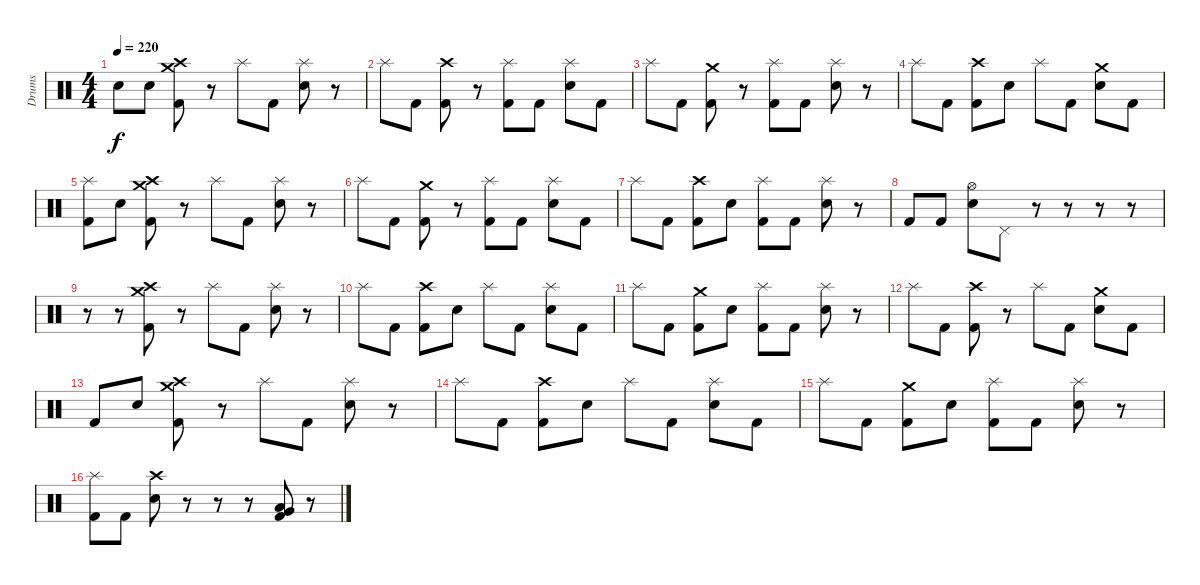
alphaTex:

\track ("Drums" "Drums") {instrument percussion}
\staff {score}
\articulation defaults
\ts (4 4)
\tempo 220
\clef neutral
\ks c "Electric Snare (hit)".8{dy f} "Electric Snare (hit)".8
("Crash high (hit)" "Crash medium (hit)" "Kick (hit) 2").8 r.8 "Splash (hit)".8 "Kick (hit) 2".8 ("Splash (hit)" "Electric Snare (hit)").8 r.8 |
"Splash (hit)".8 "Kick (hit) 2".8 ("Crash high (hit)" "Kick (hit) 2").8 r.8 ("Splash (hit)" "Kick (hit) 2").8 "Kick (hit) 2".8 ("Splash (hit)" "Electric Snare (hit)").8 "Kick (hit) 2".8 |
"Splash (hit)".8 "Kick (hit) 2".8 ("Crash medium (hit)" "Kick (hit) 2").8 r.8 ("Splash (hit)" "Kick (hit) 2").8 "Kick (hit) 2".8 ("Splash (hit)" "Electric Snare (hit)").8 r.8 |
"Splash (hit)".8 "Kick (hit) 2".8 ("Crash high (hit)" "Kick (hit) 2").8 "Electric Snare (hit)".8 "Splash (hit)".8 "Kick (hit) 2".8 ("Crash medium (hit)" "Electric Snare (hit)").8 "Kick (hit) 2".8 |
("Splash (hit)" "Kick (hit) 2").8 "Electric Snare (hit)".8 ("Crash high (hit)" "Crash medium (hit)" "Kick (hit) 2").8 r.8 "Splash (hit)".8 "Kick (hit) 2".8 ("Splash (hit)" "Electric Snare (hit)").8 r.8 |
"Splash (hit)".8 "Kick (hit) 2".8 ("Crash medium (hit)" "Kick (hit) 2").8 r.8 ("Splash (hit)" "Kick (hit) 2").8 "Kick (hit) 2".8 ("Splash (hit)" "Electric Snare (hit)").8 "Kick (hit) 2".8 |
"Splash (hit)".8 "Kick (hit) 2".8 ("Crash high (hit)" "Kick (hit) 2").8 "Electric Snare (hit)".8 ("Splash (hit)" "Kick (hit) 2").8 "Kick (hit) 2".8 ("Splash (hit)" "Electric Snare (hit)").8 r.8 |
"Kick (hit) 2".8 "Kick (hit) 2".8 ("Hi-Hat (open)" "Electric Snare (hit)").8 "Pedal Hi-Hat (hit)".8 r.8 r.8 r.8 r.8 |
r.8 r.8 ("Crash high (hit)" "Crash medium (hit)" "Kick (hit) 2").8 r.8 "Splash (hit)".8 "Kick (hit) 2".8 ("Splash (hit)" "Electric Snare (hit)").8 r.8 |
"Splash (hit)".8 "Kick (hit) 2".8 ("Crash high (hit)" "Kick (hit) 2").8 "Electric Snare (hit)".8 "Splash (hit)".8 "Kick (hit) 2".8 ("Splash (hit)" "Electric Snare (hit)").8 "Kick (hit) 2".8 |
"Splash (hit)".8 "Kick (hit) 2".8 ("Crash medium (hit)" "Kick (hit) 2").8 "Electric Snare (hit)".8 ("Splash (hit)" "Kick (hit) 2").8 "Kick (hit) 2".8 ("Splash (hit)" "Electric Snare (hit)").8 r.8 |
"Splash (hit)".8 "Kick (hit) 2".8 ("Crash high (hit)" "Kick (hit) 2").8 r.8 "Splash (hit)".8 "Kick (hit) 2".8 ("Crash medium (hit)" "Electric Snare (hit)").8 "Kick (hit) 2".8 |
"Kick (hit) 2".8 "Electric Snare (hit)".8 ("Crash high (hit)" "Crash medium (hit)" "Kick (hit) 2").8 r.8 "Splash (hit)".8 "Kick (hit) 2".8 ("Splash (hit)" "Electric Snare (hit)").8 r.8 |
"Splash (hit)".8 "Kick (hit) 2".8 ("Crash high (hit)" "Kick (hit) 2").8 "Electric Snare (hit)".8 "Splash (hit)".8 "Kick (hit) 2".8 ("Splash (hit)" "Electric Snare (hit)").8 "Kick (hit) 2".8 |
"Splash (hit)".8 "Kick (hit) 2".8 ("Crash medium (hit)" "Kick (hit) 2").8 "Electric Snare (hit)".8 ("Splash (hit)" "Kick (hit) 2").8 "Kick (hit) 2".8 ("Splash (hit)" "Electric Snare (hit)").8 r.8 |
("Splash (hit)" "Kick (hit) 2").8 "Kick (hit) 2".8 ("Crash high (hit)" "Electric Snare (hit)").8 r.8 r.8 r.8 ("Very Low Tom (hit)" "Low Floor Tom (hit)" "Kick (hit) 2").8 r.8
